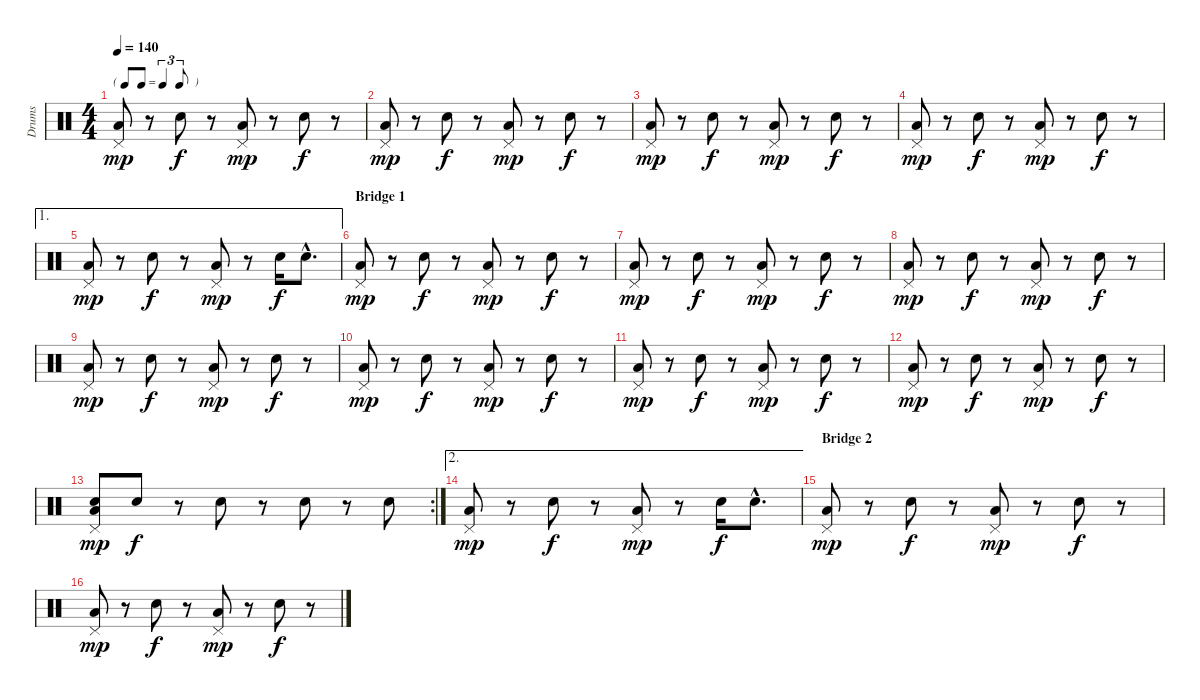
\track ("Drums" "Drums") {instrument percussion}
\staff {score}
\articulation defaults
\ts (4 4)
\tf triplet8th
\tempo 140
\clef neutral
\ks c
("Pedal Hi-Hat (hit)" "Low Floor Tom (hit)").8{dy mp} r.8 "Snare (hit) 2".8{dy f} r.8 ("Pedal Hi-Hat (hit)" "Low Floor Tom (hit)").8{dy mp} r.8 "Snare (hit) 2".8{dy f} r.8 |
("Pedal Hi-Hat (hit)" "Low Floor Tom (hit)").8{dy mp} r.8 "Snare (hit) 2".8{dy f} r.8 ("Pedal Hi-Hat (hit)" "Low Floor Tom (hit)").8{dy mp} r.8 "Snare (hit) 2".8{dy f} r.8 |
("Pedal Hi-Hat (hit)" "Low Floor Tom (hit)").8{dy mp} r.8 "Snare (hit) 2".8{dy f} r.8 ("Pedal Hi-Hat (hit)" "Low Floor Tom (hit)").8{dy mp} r.8 "Snare (hit) 2".8{dy f} r.8 |
("Pedal Hi-Hat (hit)" "Low Floor Tom (hit)").8{dy mp} r.8 "Snare (hit) 2".8{dy f} r.8 ("Pedal Hi-Hat (hit)" "Low Floor Tom (hit)").8{dy mp} r.8 "Snare (hit) 2".8{dy f} r.8 |
\ae 1
("Pedal Hi-Hat (hit)" "Low Floor Tom (hit)").8{dy mp} r.8 "Snare (hit) 2".8{dy f} r.8 ("Pedal Hi-Hat (hit)" "Low Floor Tom (hit)").8{dy mp} r.8 "Snare (hit) 2".16{dy f} "Snare (hit) 2"{hac}.8{d} |
\section ("" "Bridge 1")
("Pedal Hi-Hat (hit)" "Low Floor Tom (hit)").8{dy mp} r.8 "Snare (hit) 2".8{dy f} r.8 ("Pedal Hi-Hat (hit)" "Low Floor Tom (hit)").8{dy mp} r.8 "Snare (hit) 2".8{dy f} r.8 |
("Pedal Hi-Hat (hit)" "Low Floor Tom (hit)").8{dy mp} r.8 "Snare (hit) 2".8{dy f} r.8 ("Pedal Hi-Hat (hit)" "Low Floor Tom (hit)").8{dy mp} r.8 "Snare (hit) 2".8{dy f} r.8 |
("Pedal Hi-Hat (hit)" "Low Floor Tom (hit)").8{dy mp} r.8 "Snare (hit) 2".8{dy f} r.8 ("Pedal Hi-Hat (hit)" "Low Floor Tom (hit)").8{dy mp} r.8 "Snare (hit) 2".8{dy f} r.8 |
("Pedal Hi-Hat (hit)" "Low Floor Tom (hit)").8{dy mp} r.8 "Snare (hit) 2".8{dy f} r.8 ("Pedal Hi-Hat (hit)" "Low Floor Tom (hit)").8{dy mp} r.8 "Snare (hit) 2".8{dy f} r.8 |
("Pedal Hi-Hat (hit)" "Low Floor Tom (hit)").8{dy mp} r.8 "Snare (hit) 2".8{dy f} r.8 ("Pedal Hi-Hat (hit)" "Low Floor Tom (hit)").8{dy mp} r.8 "Snare (hit) 2".8{dy f} r.8 |
("Pedal Hi-Hat (hit)" "Low Floor Tom (hit)").8{dy mp} r.8 "Snare (hit) 2".8{dy f} r.8 ("Pedal Hi-Hat (hit)" "Low Floor Tom (hit)").8{dy mp} r.8 "Snare (hit) 2".8{dy f} r.8 |
("Pedal Hi-Hat (hit)" "Low Floor Tom (hit)").8{dy mp} r.8 "Snare (hit) 2".8{dy f} r.8 ("Pedal Hi-Hat (hit)" "Low Floor Tom (hit)").8{dy mp} r.8 "Snare (hit) 2".8{dy f} r.8 |
\rc 2
("Pedal Hi-Hat (hit)" "Snare (hit) 2" "Low Floor Tom (hit)").8{dy mp} "Snare (hit) 2".8{dy f} r.8 "Snare (hit) 2".8 r.8 "Snare (hit) 2".8 r.8 "Snare (hit) 2".8 |
\ae 2
("Pedal Hi-Hat (hit)" "Low Floor Tom (hit)").8{dy mp} r.8 "Snare (hit) 2".8{dy f} r.8 ("Pedal Hi-Hat (hit)" "Low Floor Tom (hit)").8{dy mp} r.8 "Snare (hit) 2".16{dy f} "Snare (hit) 2"{hac}.8{d} |
\section ("" "Bridge 2")
("Pedal Hi-Hat (hit)" "Low Floor Tom (hit)").8{dy mp} r.8 "Snare (hit) 2".8{dy f} r.8 ("Pedal Hi-Hat (hit)" "Low Floor Tom (hit)").8{dy mp} r.8 "Snare (hit) 2".8{dy f} r.8 |
("Pedal Hi-Hat (hit)" "Low Floor Tom (hit)").8{dy mp} r.8 "Snare (hit) 2".8{dy f} r.8 ("Pedal Hi-Hat (hit)" "Low Floor Tom (hit)").8{dy mp} r.8 "Snare (hit) 2".8{dy f} r.8
